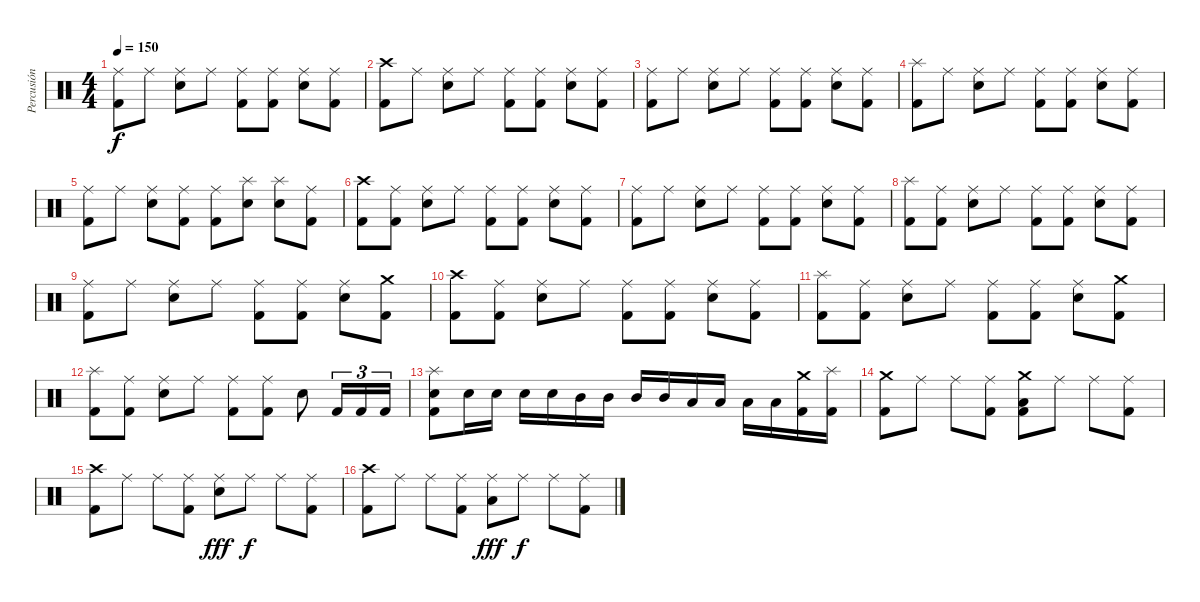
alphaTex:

\track ("Percusión" "Percusión") {instrument percussion}
\staff {score}
\articulation defaults
\ts (4 4)
\tempo 150
\clef neutral
\ks c
("Ride (middle)" "Kick (hit) 2").8{dy f} "Ride (middle)".8 ("Ride (middle)" "Electric Snare (hit)").8 "Ride (middle)".8 ("Ride (middle)" "Kick (hit) 2").8 ("Ride (middle)" "Kick (hit) 2").8 ("Ride (middle)" "Electric Snare (hit)").8 ("Ride (middle)" "Kick (hit) 2").8 |
("Crash high (hit)" "Kick (hit) 2").8 "Ride (middle)".8 ("Ride (middle)" "Electric Snare (hit)").8 "Ride (middle)".8 ("Ride (middle)" "Kick (hit) 2").8 ("Ride (middle)" "Kick (hit) 2").8 ("Ride (middle)" "Electric Snare (hit)").8 ("Ride (middle)" "Kick (hit) 2").8 |
("Ride (middle)" "Kick (hit) 2").8 "Ride (middle)".8 ("Ride (middle)" "Electric Snare (hit)").8 "Ride (middle)".8 ("Ride (middle)" "Kick (hit) 2").8 ("Ride (middle)" "Kick (hit) 2").8 ("Ride (middle)" "Electric Snare (hit)").8 ("Ride (middle)" "Kick (hit) 2").8 |
("Splash (hit)" "Kick (hit) 2").8 "Ride (middle)".8 ("Ride (middle)" "Electric Snare (hit)").8 "Ride (middle)".8 ("Ride (middle)" "Kick (hit) 2").8 ("Ride (middle)" "Kick (hit) 2").8 ("Ride (middle)" "Electric Snare (hit)").8 ("Ride (middle)" "Kick (hit) 2").8 |
("Ride (middle)" "Kick (hit) 2").8 "Ride (middle)".8 ("Ride (middle)" "Electric Snare (hit)").8 ("Ride (middle)" "Kick (hit) 2").8 ("Ride (middle)" "Kick (hit) 2").8 ("Splash (hit)" "Electric Snare (hit)").8 ("Splash (hit)" "Electric Snare (hit)").8 ("Ride (middle)" "Kick (hit) 2").8 |
("Crash high (hit)" "Kick (hit) 2").8 ("Ride (middle)" "Kick (hit) 2").8 ("Ride (middle)" "Electric Snare (hit)").8 "Ride (middle)".8 ("Ride (middle)" "Kick (hit) 2").8 ("Ride (middle)" "Kick (hit) 2").8 ("Ride (middle)" "Electric Snare (hit)").8 ("Ride (middle)" "Kick (hit) 2").8 |
("Ride (middle)" "Kick (hit) 2").8 "Ride (middle)".8 ("Ride (middle)" "Electric Snare (hit)").8 "Ride (middle)".8 ("Ride (middle)" "Kick (hit) 2").8 ("Ride (middle)" "Kick (hit) 2").8 ("Ride (middle)" "Electric Snare (hit)").8 ("Ride (middle)" "Kick (hit) 2").8 |
("Splash (hit)" "Kick (hit) 2").8 ("Ride (middle)" "Kick (hit) 2").8 ("Ride (middle)" "Electric Snare (hit)").8 "Ride (middle)".8 ("Ride (middle)" "Kick (hit) 2").8 ("Ride (middle)" "Kick (hit) 2").8 ("Ride (middle)" "Electric Snare (hit)").8 ("Ride (middle)" "Kick (hit) 2").8 |
("Ride (middle)" "Kick (hit) 2").8 "Ride (middle)".8 ("Ride (middle)" "Electric Snare (hit)").8 "Ride (middle)".8 ("Ride (middle)" "Kick (hit) 2").8 ("Ride (middle)" "Kick (hit) 2").8 ("Ride (middle)" "Electric Snare (hit)").8 ("Crash medium (hit)" "Kick (hit) 2").8 |
("Crash high (hit)" "Kick (hit) 2").8 ("Ride (middle)" "Kick (hit) 2").8 ("Ride (middle)" "Electric Snare (hit)").8 "Ride (middle)".8 ("Ride (middle)" "Kick (hit) 2").8 ("Ride (middle)" "Kick (hit) 2").8 ("Ride (middle)" "Electric Snare (hit)").8 ("Ride (middle)" "Kick (hit) 2").8 |
("Splash (hit)" "Kick (hit) 2").8 ("Ride (middle)" "Kick (hit) 2").8 ("Ride (middle)" "Electric Snare (hit)").8 "Ride (middle)".8 ("Ride (middle)" "Kick (hit) 2").8 ("Ride (middle)" "Kick (hit) 2").8 ("Ride (middle)" "Electric Snare (hit)").8 ("Crash medium (hit)" "Kick (hit) 2").8 |
("Splash (hit)" "Kick (hit) 2").8 ("Ride (middle)" "Kick (hit) 2").8 ("Ride (middle)" "Electric Snare (hit)").8 "Ride (middle)".8 ("Ride (middle)" "Kick (hit) 2").8 ("Ride (middle)" "Kick (hit) 2").8 "Electric Snare (hit)".8 "Kick (hit) 2".16{tu (3 2)} "Kick (hit) 2".16{tu (3 2)} "Kick (hit) 2".16{tu (3 2)} |
("Splash (hit)" "Electric Snare (hit)" "Kick (hit) 2").8 "Electric Snare (hit)".16 "Electric Snare (hit)".16 "Electric Snare (hit)".16 "Electric Snare (hit)".16 "Mid Tom (hit)".16 "Mid Tom (hit)".16 "Mid Tom (hit)".16 "Mid Tom (hit)".16 "Low Tom (hit)".16 "Low Tom (hit)".16 "Low Tom (hit)".16 "Low Tom (hit)".16 ("Crash medium (hit)" "Kick (hit) 2").16 ("Splash (hit)" "Kick (hit) 2").16 |
("Crash medium (hit)" "Kick (hit) 2").8 "Ride (middle)".8 "Ride (middle)".8 ("Ride (middle)" "Kick (hit) 2").8 ("Crash medium (hit)" "Low Tom (hit)" "Kick (hit) 2").8 "Ride (middle)".8 "Ride (middle)".8 ("Ride (middle)" "Kick (hit) 2").8 |
("Crash high (hit)" "Kick (hit) 2").8 "Ride (middle)".8 "Ride (middle)".8 ("Ride (middle)" "Kick (hit) 2").8 ("Ride (middle)" "Electric Snare (hit)").8{dy fff} "Ride (middle)".8{dy f} "Ride (middle)".8 ("Ride (middle)" "Kick (hit) 2").8 |
("Crash high (hit)" "Kick (hit) 2").8 "Ride (middle)".8 "Ride (middle)".8 ("Ride (middle)" "Kick (hit) 2").8 ("Ride (middle)" "Low Tom (hit)").8{dy fff} "Ride (middle)".8{dy f} "Ride (middle)".8 ("Ride (middle)" "Kick (hit) 2").8
